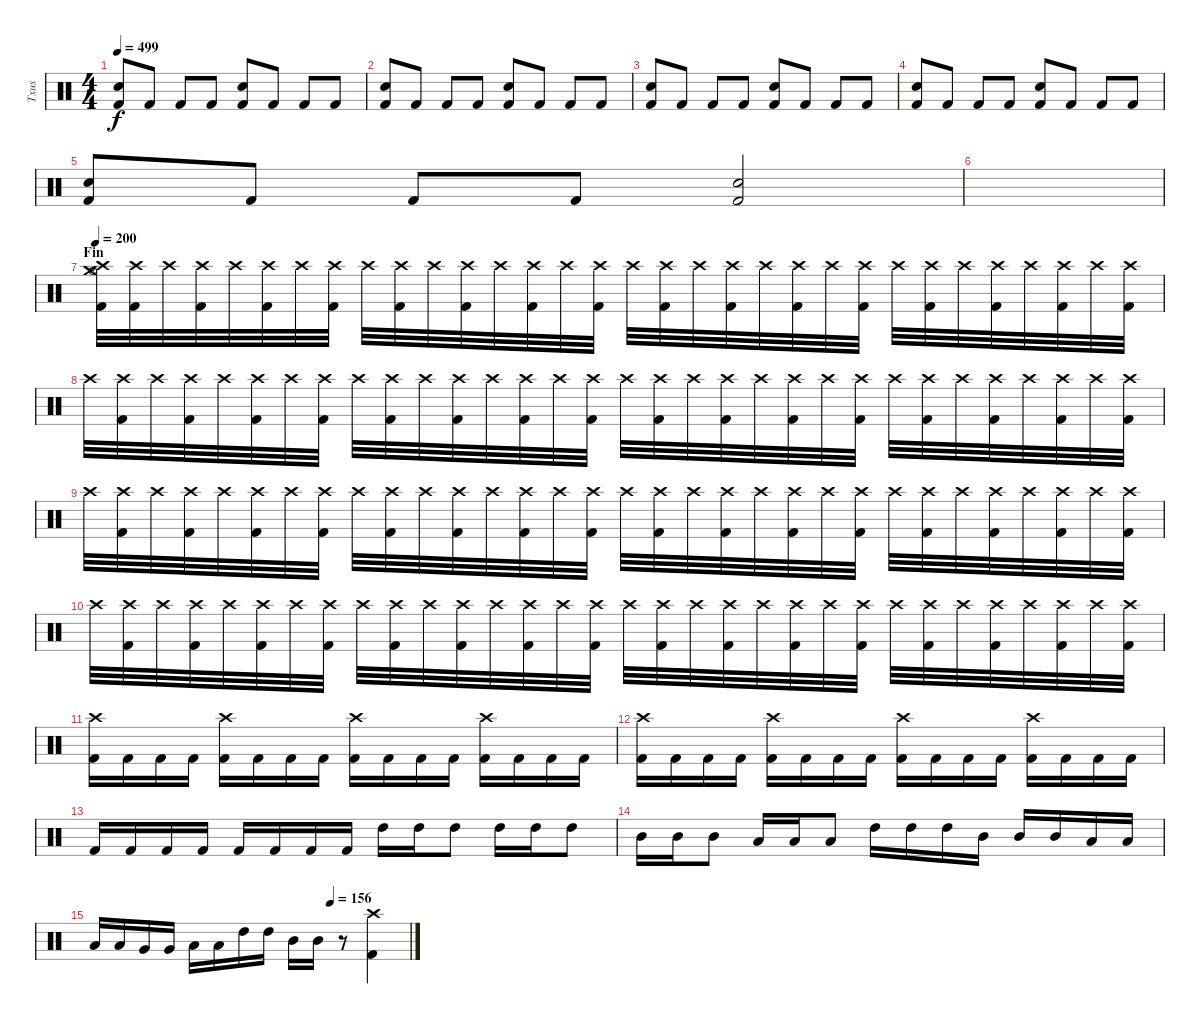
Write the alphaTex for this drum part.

\track ("Txus" "Txus") {instrument percussion}
\staff {score}
\articulation defaults
\ts (4 4)
\tempo 499
\clef neutral
\ks c
("Kick (hit) 2" "Electric Snare (hit)").8{dy f} "Kick (hit) 2".8 "Kick (hit) 2".8 "Kick (hit) 2".8 ("Kick (hit) 2" "Electric Snare (hit)").8 "Kick (hit) 2".8 "Kick (hit) 2".8 "Kick (hit) 2".8 |
("Kick (hit) 2" "Electric Snare (hit)").8 "Kick (hit) 2".8 "Kick (hit) 2".8 "Kick (hit) 2".8 ("Kick (hit) 2" "Electric Snare (hit)").8 "Kick (hit) 2".8 "Kick (hit) 2".8 "Kick (hit) 2".8 |
("Kick (hit) 2" "Electric Snare (hit)").8 "Kick (hit) 2".8 "Kick (hit) 2".8 "Kick (hit) 2".8 ("Kick (hit) 2" "Electric Snare (hit)").8 "Kick (hit) 2".8 "Kick (hit) 2".8 "Kick (hit) 2".8 |
("Kick (hit) 2" "Electric Snare (hit)").8 "Kick (hit) 2".8 "Kick (hit) 2".8 "Kick (hit) 2".8 ("Kick (hit) 2" "Electric Snare (hit)").8 "Kick (hit) 2".8 "Kick (hit) 2".8 "Kick (hit) 2".8 |
("Kick (hit) 2" "Electric Snare (hit)").8 "Kick (hit) 2".8 "Kick (hit) 2".8 "Kick (hit) 2".8 ("Kick (hit) 2" "Electric Snare (hit)").2 |
|
\section ("" "Fin")
\tempo 200
("Crash high (hit)" "Kick (hit) 2" "Crash medium (hit)" "Hi-Hat (open)").32{volume 5} ("Crash high (hit)" "Kick (hit) 2").32 "Crash high (hit)".32 ("Crash high (hit)" "Kick (hit) 2").32 "Crash high (hit)".32 ("Crash high (hit)" "Kick (hit) 2").32 "Crash high (hit)".32 ("Crash high (hit)" "Kick (hit) 2").32 "Crash high (hit)".32 ("Crash high (hit)" "Kick (hit) 2").32 "Crash high (hit)".32 ("Crash high (hit)" "Kick (hit) 2").32 "Crash high (hit)".32 ("Crash high (hit)" "Kick (hit) 2").32 "Crash high (hit)".32 ("Crash high (hit)" "Kick (hit) 2").32 "Crash high (hit)".32 ("Crash high (hit)" "Kick (hit) 2").32 "Crash high (hit)".32 ("Crash high (hit)" "Kick (hit) 2").32 "Crash high (hit)".32 ("Crash high (hit)" "Kick (hit) 2").32 "Crash high (hit)".32 ("Crash high (hit)" "Kick (hit) 2").32 "Crash high (hit)".32 ("Crash high (hit)" "Kick (hit) 2").32 "Crash high (hit)".32 ("Crash high (hit)" "Kick (hit) 2").32 "Crash high (hit)".32 ("Crash high (hit)" "Kick (hit) 2").32 "Crash high (hit)".32 ("Crash high (hit)" "Kick (hit) 2").32 |
"Crash high (hit)".32 ("Crash high (hit)" "Kick (hit) 2").32 "Crash high (hit)".32 ("Crash high (hit)" "Kick (hit) 2").32 "Crash high (hit)".32 ("Crash high (hit)" "Kick (hit) 2").32 "Crash high (hit)".32 ("Crash high (hit)" "Kick (hit) 2").32 "Crash high (hit)".32 ("Crash high (hit)" "Kick (hit) 2").32 "Crash high (hit)".32 ("Crash high (hit)" "Kick (hit) 2").32 "Crash high (hit)".32 ("Crash high (hit)" "Kick (hit) 2").32 "Crash high (hit)".32 ("Crash high (hit)" "Kick (hit) 2").32 "Crash high (hit)".32 ("Crash high (hit)" "Kick (hit) 2").32 "Crash high (hit)".32 ("Crash high (hit)" "Kick (hit) 2").32 "Crash high (hit)".32 ("Crash high (hit)" "Kick (hit) 2").32 "Crash high (hit)".32 ("Crash high (hit)" "Kick (hit) 2").32 "Crash high (hit)".32 ("Crash high (hit)" "Kick (hit) 2").32 "Crash high (hit)".32 ("Crash high (hit)" "Kick (hit) 2").32 "Crash high (hit)".32 ("Crash high (hit)" "Kick (hit) 2").32 "Crash high (hit)".32 ("Crash high (hit)" "Kick (hit) 2").32 |
"Crash high (hit)".32 ("Crash high (hit)" "Kick (hit) 2").32 "Crash high (hit)".32 ("Crash high (hit)" "Kick (hit) 2").32 "Crash high (hit)".32 ("Crash high (hit)" "Kick (hit) 2").32 "Crash high (hit)".32 ("Crash high (hit)" "Kick (hit) 2").32 "Crash high (hit)".32 ("Crash high (hit)" "Kick (hit) 2").32 "Crash high (hit)".32 ("Crash high (hit)" "Kick (hit) 2").32 "Crash high (hit)".32 ("Crash high (hit)" "Kick (hit) 2").32 "Crash high (hit)".32 ("Crash high (hit)" "Kick (hit) 2").32 "Crash high (hit)".32 ("Crash high (hit)" "Kick (hit) 2").32 "Crash high (hit)".32 ("Crash high (hit)" "Kick (hit) 2").32 "Crash high (hit)".32 ("Crash high (hit)" "Kick (hit) 2").32 "Crash high (hit)".32 ("Crash high (hit)" "Kick (hit) 2").32 "Crash high (hit)".32 ("Crash high (hit)" "Kick (hit) 2").32 "Crash high (hit)".32 ("Crash high (hit)" "Kick (hit) 2").32 "Crash high (hit)".32 ("Crash high (hit)" "Kick (hit) 2").32 "Crash high (hit)".32 ("Crash high (hit)" "Kick (hit) 2").32 |
"Crash high (hit)".32 ("Crash high (hit)" "Kick (hit) 2").32 "Crash high (hit)".32 ("Crash high (hit)" "Kick (hit) 2").32 "Crash high (hit)".32 ("Crash high (hit)" "Kick (hit) 2").32 "Crash high (hit)".32 ("Crash high (hit)" "Kick (hit) 2").32 "Crash high (hit)".32 ("Crash high (hit)" "Kick (hit) 2").32 "Crash high (hit)".32 ("Crash high (hit)" "Kick (hit) 2").32 "Crash high (hit)".32 ("Crash high (hit)" "Kick (hit) 2").32 "Crash high (hit)".32 ("Crash high (hit)" "Kick (hit) 2").32 "Crash high (hit)".32 ("Crash high (hit)" "Kick (hit) 2").32 "Crash high (hit)".32 ("Crash high (hit)" "Kick (hit) 2").32 "Crash high (hit)".32 ("Crash high (hit)" "Kick (hit) 2").32 "Crash high (hit)".32 ("Crash high (hit)" "Kick (hit) 2").32 "Crash high (hit)".32 ("Crash high (hit)" "Kick (hit) 2").32 "Crash high (hit)".32 ("Crash high (hit)" "Kick (hit) 2").32 "Crash high (hit)".32 ("Crash high (hit)" "Kick (hit) 2").32 "Crash high (hit)".32 ("Crash high (hit)" "Kick (hit) 2").32 |
("Kick (hit) 2" "Crash high (hit)").16{volume 10} "Kick (hit) 2".16 "Kick (hit) 2".16 "Kick (hit) 2".16 ("Kick (hit) 2" "Crash high (hit)").16 "Kick (hit) 2".16 "Kick (hit) 2".16 "Kick (hit) 2".16 ("Kick (hit) 2" "Crash high (hit)").16 "Kick (hit) 2".16 "Kick (hit) 2".16 "Kick (hit) 2".16 ("Kick (hit) 2" "Crash high (hit)").16 "Kick (hit) 2".16 "Kick (hit) 2".16 "Kick (hit) 2".16 |
("Kick (hit) 2" "Crash high (hit)").16 "Kick (hit) 2".16 "Kick (hit) 2".16 "Kick (hit) 2".16 ("Kick (hit) 2" "Crash high (hit)").16 "Kick (hit) 2".16 "Kick (hit) 2".16 "Kick (hit) 2".16 ("Kick (hit) 2" "Crash high (hit)").16 "Kick (hit) 2".16 "Kick (hit) 2".16 "Kick (hit) 2".16 ("Kick (hit) 2" "Crash high (hit)").16 "Kick (hit) 2".16 "Kick (hit) 2".16 "Kick (hit) 2".16 |
"Kick (hit) 2".16 "Kick (hit) 2".16 "Kick (hit) 2".16 "Kick (hit) 2".16 "Kick (hit) 2".16 "Kick (hit) 2".16 "Kick (hit) 2".16 "Kick (hit) 2".16 "High Tom (hit)".16 "High Tom (hit)".16 "High Tom (hit)".8 "High Tom (hit)".16 "High Tom (hit)".16 "High Tom (hit)".8 |
"Mid Tom (hit)".16 "Mid Tom (hit)".16 "Mid Tom (hit)".8 "Low Tom (hit)".16 "Low Tom (hit)".16 "Low Tom (hit)".8 "High Tom (hit)".16 "High Tom (hit)".16 "High Tom (hit)".16 "Mid Tom (hit)".16 "Mid Tom (hit)".16 "Mid Tom (hit)".16 "Low Tom (hit)".16 "Low Tom (hit)".16 |
\tempo (156 0.75)
"Low Tom (hit)".16 "Low Tom (hit)".16 "Very Low Tom (hit)".16 "Very Low Tom (hit)".16 "Low Tom (hit)".16 "Low Tom (hit)".16 "High Tom (hit)".16 "High Tom (hit)".16 "Mid Tom (hit)".16 "Mid Tom (hit)".16 r.8 ("Kick (hit) 2" "Crash high (hit)").4
